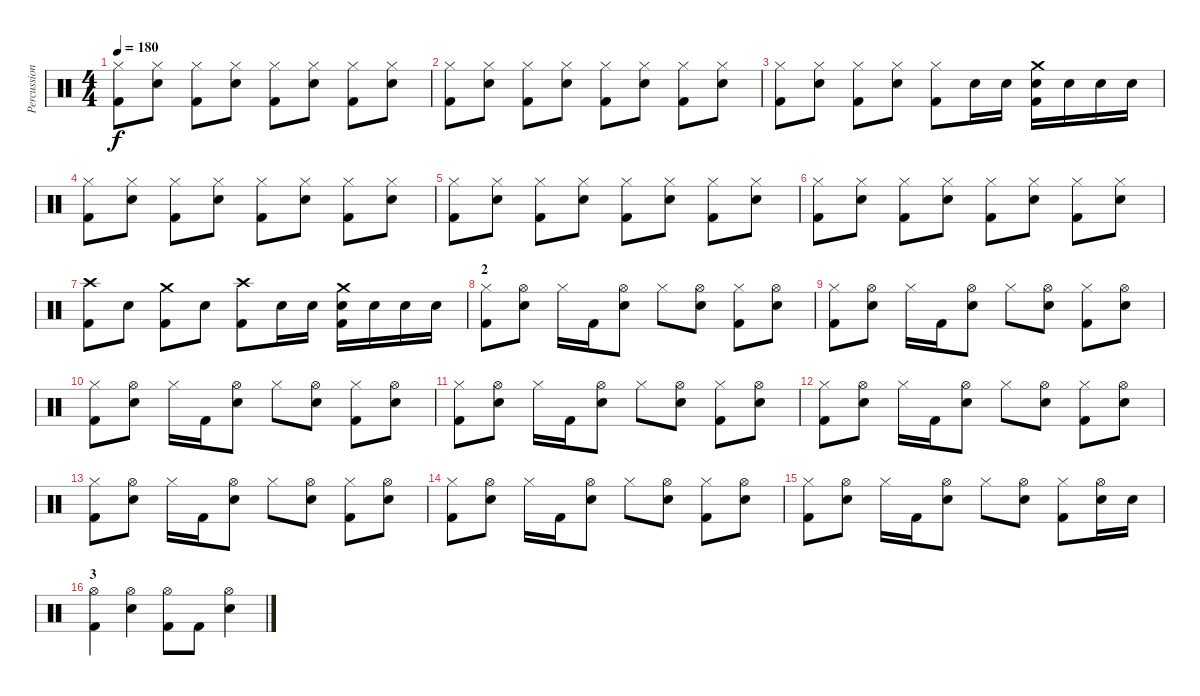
\track ("Percussions" "Percussion") {instrument percussion}
\staff {score}
\articulation defaults
\ts (4 4)
\tempo 180
\clef neutral
\ks c
("Hi-Hat (closed)" "Kick (hit) 2").8{dy f} ("Hi-Hat (closed)" "Snare (hit) 2").8 ("Hi-Hat (closed)" "Kick (hit) 2").8 ("Hi-Hat (closed)" "Snare (hit) 2").8 ("Hi-Hat (closed)" "Kick (hit) 2").8 ("Hi-Hat (closed)" "Snare (hit) 2").8 ("Hi-Hat (closed)" "Kick (hit) 2").8 ("Hi-Hat (closed)" "Snare (hit) 2").8 |
("Hi-Hat (closed)" "Kick (hit) 2").8 ("Hi-Hat (closed)" "Snare (hit) 2").8 ("Hi-Hat (closed)" "Kick (hit) 2").8 ("Hi-Hat (closed)" "Snare (hit) 2").8 ("Hi-Hat (closed)" "Kick (hit) 2").8 ("Hi-Hat (closed)" "Snare (hit) 2").8 ("Hi-Hat (closed)" "Kick (hit) 2").8 ("Hi-Hat (closed)" "Snare (hit) 2").8 |
("Hi-Hat (closed)" "Kick (hit) 2").8 ("Hi-Hat (closed)" "Snare (hit) 2").8 ("Hi-Hat (closed)" "Kick (hit) 2").8 ("Hi-Hat (closed)" "Snare (hit) 2").8 ("Hi-Hat (closed)" "Kick (hit) 2").8 "Snare (hit) 2".16 "Snare (hit) 2".16 ("Crash medium (hit)" "Snare (hit) 2" "Kick (hit) 2").16 "Snare (hit) 2".16 "Snare (hit) 2".16 "Snare (hit) 2".16 |
("Hi-Hat (closed)" "Kick (hit) 2").8 ("Hi-Hat (closed)" "Snare (hit) 2").8 ("Hi-Hat (closed)" "Kick (hit) 2").8 ("Hi-Hat (closed)" "Snare (hit) 2").8 ("Hi-Hat (closed)" "Kick (hit) 2").8 ("Hi-Hat (closed)" "Snare (hit) 2").8 ("Hi-Hat (closed)" "Kick (hit) 2").8 ("Hi-Hat (closed)" "Snare (hit) 2").8 |
("Hi-Hat (closed)" "Kick (hit) 2").8 ("Hi-Hat (closed)" "Snare (hit) 2").8 ("Hi-Hat (closed)" "Kick (hit) 2").8 ("Hi-Hat (closed)" "Snare (hit) 2").8 ("Hi-Hat (closed)" "Kick (hit) 2").8 ("Hi-Hat (closed)" "Snare (hit) 2").8 ("Hi-Hat (closed)" "Kick (hit) 2").8 ("Hi-Hat (closed)" "Snare (hit) 2").8 |
("Hi-Hat (closed)" "Kick (hit) 2").8 ("Hi-Hat (closed)" "Snare (hit) 2").8 ("Hi-Hat (closed)" "Kick (hit) 2").8 ("Hi-Hat (closed)" "Snare (hit) 2").8 ("Hi-Hat (closed)" "Kick (hit) 2").8 ("Hi-Hat (closed)" "Snare (hit) 2").8 ("Hi-Hat (closed)" "Kick (hit) 2").8 ("Hi-Hat (closed)" "Snare (hit) 2").8 |
("Crash high (hit)" "Kick (hit) 2").8 "Snare (hit) 2".8 ("Crash medium (hit)" "Kick (hit) 2").8 "Snare (hit) 2".8 ("Crash high (hit)" "Kick (hit) 2").8 "Snare (hit) 2".16 "Snare (hit) 2".16 ("Crash medium (hit)" "Snare (hit) 2" "Kick (hit) 2").16 "Snare (hit) 2".16 "Snare (hit) 2".16 "Snare (hit) 2".16 |
\section ("" "2")
("Hi-Hat (closed)" "Kick (hit) 2").8 ("Hi-Hat (open)" "Snare (hit) 2").8 "Hi-Hat (closed)".16 "Kick (hit) 2".16 ("Hi-Hat (open)" "Snare (hit) 2").8 "Hi-Hat (closed)".8 ("Hi-Hat (open)" "Snare (hit) 2").8 ("Hi-Hat (closed)" "Kick (hit) 2").8 ("Hi-Hat (open)" "Snare (hit) 2").8 |
("Hi-Hat (closed)" "Kick (hit) 2").8 ("Hi-Hat (open)" "Snare (hit) 2").8 "Hi-Hat (closed)".16 "Kick (hit) 2".16 ("Hi-Hat (open)" "Snare (hit) 2").8 "Hi-Hat (closed)".8 ("Hi-Hat (open)" "Snare (hit) 2").8 ("Hi-Hat (closed)" "Kick (hit) 2").8 ("Hi-Hat (open)" "Snare (hit) 2").8 |
("Hi-Hat (closed)" "Kick (hit) 2").8 ("Hi-Hat (open)" "Snare (hit) 2").8 "Hi-Hat (closed)".16 "Kick (hit) 2".16 ("Hi-Hat (open)" "Snare (hit) 2").8 "Hi-Hat (closed)".8 ("Hi-Hat (open)" "Snare (hit) 2").8 ("Hi-Hat (closed)" "Kick (hit) 2").8 ("Hi-Hat (open)" "Snare (hit) 2").8 |
("Hi-Hat (closed)" "Kick (hit) 2").8 ("Hi-Hat (open)" "Snare (hit) 2").8 "Hi-Hat (closed)".16 "Kick (hit) 2".16 ("Hi-Hat (open)" "Snare (hit) 2").8 "Hi-Hat (closed)".8 ("Hi-Hat (open)" "Snare (hit) 2").8 ("Hi-Hat (closed)" "Kick (hit) 2").8 ("Hi-Hat (open)" "Snare (hit) 2").8 |
("Hi-Hat (closed)" "Kick (hit) 2").8 ("Hi-Hat (open)" "Snare (hit) 2").8 "Hi-Hat (closed)".16 "Kick (hit) 2".16 ("Hi-Hat (open)" "Snare (hit) 2").8 "Hi-Hat (closed)".8 ("Hi-Hat (open)" "Snare (hit) 2").8 ("Hi-Hat (closed)" "Kick (hit) 2").8 ("Hi-Hat (open)" "Snare (hit) 2").8 |
("Hi-Hat (closed)" "Kick (hit) 2").8 ("Hi-Hat (open)" "Snare (hit) 2").8 "Hi-Hat (closed)".16 "Kick (hit) 2".16 ("Hi-Hat (open)" "Snare (hit) 2").8 "Hi-Hat (closed)".8 ("Hi-Hat (open)" "Snare (hit) 2").8 ("Hi-Hat (closed)" "Kick (hit) 2").8 ("Hi-Hat (open)" "Snare (hit) 2").8 |
("Hi-Hat (closed)" "Kick (hit) 2").8 ("Hi-Hat (open)" "Snare (hit) 2").8 "Hi-Hat (closed)".16 "Kick (hit) 2".16 ("Hi-Hat (open)" "Snare (hit) 2").8 "Hi-Hat (closed)".8 ("Hi-Hat (open)" "Snare (hit) 2").8 ("Hi-Hat (closed)" "Kick (hit) 2").8 ("Hi-Hat (open)" "Snare (hit) 2").8 |
("Hi-Hat (closed)" "Kick (hit) 2").8 ("Hi-Hat (open)" "Snare (hit) 2").8 "Hi-Hat (closed)".16 "Kick (hit) 2".16 ("Hi-Hat (open)" "Snare (hit) 2").8 "Hi-Hat (closed)".8 ("Hi-Hat (open)" "Snare (hit) 2").8 ("Hi-Hat (closed)" "Kick (hit) 2").8 ("Hi-Hat (open)" "Snare (hit) 2").16 "Snare (hit) 2".16 |
\section ("" "3")
("Hi-Hat (open)" "Kick (hit) 2").4 ("Hi-Hat (open)" "Snare (hit) 2").4 ("Hi-Hat (open)" "Kick (hit) 2").8 "Kick (hit) 2".8 ("Hi-Hat (open)" "Snare (hit) 2").4
